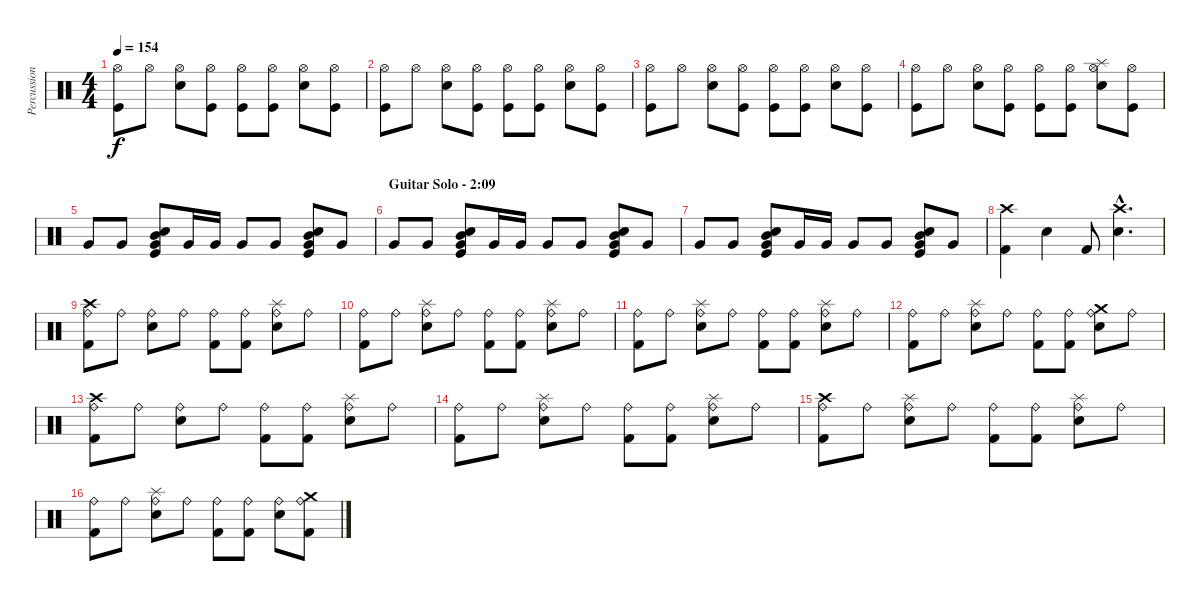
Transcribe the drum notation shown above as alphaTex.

\track ("Percussioni" "Percussion") {instrument percussion}
\staff {score}
\articulation defaults
\ts (4 4)
\tempo 154
\clef neutral
\ks c
("Hi-Hat (open)" "Kick (hit)").8{dy f} "Hi-Hat (open)".8 ("Hi-Hat (open)" "Electric Snare (hit)").8 ("Hi-Hat (open)" "Kick (hit)").8 ("Hi-Hat (open)" "Kick (hit)").8 ("Hi-Hat (open)" "Kick (hit)").8 ("Hi-Hat (open)" "Electric Snare (hit)").8 ("Hi-Hat (open)" "Kick (hit)").8 |
("Hi-Hat (open)" "Kick (hit)").8 "Hi-Hat (open)".8 ("Hi-Hat (open)" "Electric Snare (hit)").8 ("Hi-Hat (open)" "Kick (hit)").8 ("Hi-Hat (open)" "Kick (hit)").8 ("Hi-Hat (open)" "Kick (hit)").8 ("Hi-Hat (open)" "Electric Snare (hit)").8 ("Hi-Hat (open)" "Kick (hit)").8 |
("Hi-Hat (open)" "Kick (hit)").8 "Hi-Hat (open)".8 ("Hi-Hat (open)" "Electric Snare (hit)").8 ("Hi-Hat (open)" "Kick (hit)").8 ("Hi-Hat (open)" "Kick (hit)").8 ("Hi-Hat (open)" "Kick (hit)").8 ("Hi-Hat (open)" "Electric Snare (hit)").8 ("Hi-Hat (open)" "Kick (hit)").8 |
("Hi-Hat (open)" "Kick (hit)").8 "Hi-Hat (open)".8 ("Hi-Hat (open)" "Electric Snare (hit)").8 ("Hi-Hat (open)" "Kick (hit)").8 ("Hi-Hat (open)" "Kick (hit)").8 ("Hi-Hat (open)" "Kick (hit)").8 ("Hi-Hat (open)" "Splash (hit)" "Electric Snare (hit)").8 ("Hi-Hat (open)" "Kick (hit)").8 |
"Very Low Tom (hit)".8 "Very Low Tom (hit)".8 ("Snare (hit) 2" "Mid Tom (hit)" "Very Low Tom (hit)" "Kick (hit)").8 "Very Low Tom (hit)".16 "Very Low Tom (hit)".16 "Very Low Tom (hit)".8 "Very Low Tom (hit)".8 ("Snare (hit) 2" "Mid Tom (hit)" "Very Low Tom (hit)" "Kick (hit)").8 "Very Low Tom (hit)".8 |
\section ("" "Guitar Solo - 2:09")
"Very Low Tom (hit)".8 "Very Low Tom (hit)".8 ("Snare (hit) 2" "Mid Tom (hit)" "Very Low Tom (hit)" "Kick (hit)").8 "Very Low Tom (hit)".16 "Very Low Tom (hit)".16 "Very Low Tom (hit)".8 "Very Low Tom (hit)".8 ("Snare (hit) 2" "Mid Tom (hit)" "Very Low Tom (hit)" "Kick (hit)").8 "Very Low Tom (hit)".8 |
"Very Low Tom (hit)".8 "Very Low Tom (hit)".8 ("Snare (hit) 2" "Mid Tom (hit)" "Very Low Tom (hit)" "Kick (hit)").8 "Very Low Tom (hit)".16 "Very Low Tom (hit)".16 "Very Low Tom (hit)".8 "Very Low Tom (hit)".8 ("Snare (hit) 2" "Mid Tom (hit)" "Very Low Tom (hit)" "Kick (hit)").8 "Very Low Tom (hit)".8 |
("Kick (hit) 2" "Crash high (hit)").4 "Electric Snare (hit)".4 "Kick (hit) 2".8 ("Electric Snare (hit)"{hac} "Crash high (hit)"{hac}).4{d} |
("Ride (bell)" "Kick (hit) 2" "Crash high (hit)").8 "Ride (bell)".8 ("Ride (bell)" "Electric Snare (hit)").8 "Ride (bell)".8 ("Ride (bell)" "Kick (hit) 2").8 ("Ride (bell)" "Kick (hit) 2").8 ("Ride (bell)" "Electric Snare (hit)" "Splash (hit)").8 "Ride (bell)".8 |
("Ride (bell)" "Kick (hit) 2").8 "Ride (bell)".8 ("Ride (bell)" "Electric Snare (hit)" "Splash (hit)").8 "Ride (bell)".8 ("Ride (bell)" "Kick (hit) 2").8 ("Ride (bell)" "Kick (hit) 2").8 ("Ride (bell)" "Electric Snare (hit)" "Splash (hit)").8 "Ride (bell)".8 |
("Ride (bell)" "Kick (hit) 2").8 "Ride (bell)".8 ("Ride (bell)" "Electric Snare (hit)" "Splash (hit)").8 "Ride (bell)".8 ("Ride (bell)" "Kick (hit) 2").8 ("Ride (bell)" "Kick (hit) 2").8 ("Ride (bell)" "Electric Snare (hit)" "Splash (hit)").8 "Ride (bell)".8 |
("Ride (bell)" "Kick (hit) 2").8 "Ride (bell)".8 ("Ride (bell)" "Electric Snare (hit)" "Splash (hit)").8 "Ride (bell)".8 ("Ride (bell)" "Kick (hit) 2").8 ("Ride (bell)" "Kick (hit) 2").8 ("Ride (bell)" "Electric Snare (hit)" "Crash medium (hit)").8 "Ride (bell)".8 |
("Ride (bell)" "Kick (hit) 2" "Crash high (hit)").8 "Ride (bell)".8 ("Ride (bell)" "Electric Snare (hit)").8 "Ride (bell)".8 ("Ride (bell)" "Kick (hit) 2").8 ("Ride (bell)" "Kick (hit) 2").8 ("Ride (bell)" "Electric Snare (hit)" "Splash (hit)").8 "Ride (bell)".8 |
("Ride (bell)" "Kick (hit) 2").8 "Ride (bell)".8 ("Ride (bell)" "Electric Snare (hit)" "Splash (hit)").8 "Ride (bell)".8 ("Ride (bell)" "Kick (hit) 2").8 ("Ride (bell)" "Kick (hit) 2").8 ("Ride (bell)" "Electric Snare (hit)" "Splash (hit)").8 "Ride (bell)".8 |
("Ride (bell)" "Kick (hit) 2" "Crash high (hit)").8 "Ride (bell)".8 ("Ride (bell)" "Electric Snare (hit)" "Splash (hit)").8 "Ride (bell)".8 ("Ride (bell)" "Kick (hit) 2").8 ("Ride (bell)" "Kick (hit) 2").8 ("Ride (bell)" "Electric Snare (hit)" "Splash (hit)").8 "Ride (bell)".8 |
("Ride (bell)" "Kick (hit) 2").8 "Ride (bell)".8 ("Ride (bell)" "Electric Snare (hit)" "Splash (hit)").8 "Ride (bell)".8 ("Ride (bell)" "Kick (hit) 2").8 ("Ride (bell)" "Kick (hit) 2").8 ("Ride (bell)" "Electric Snare (hit)").8 ("Ride (bell)" "Kick (hit) 2" "Crash medium (hit)").8
